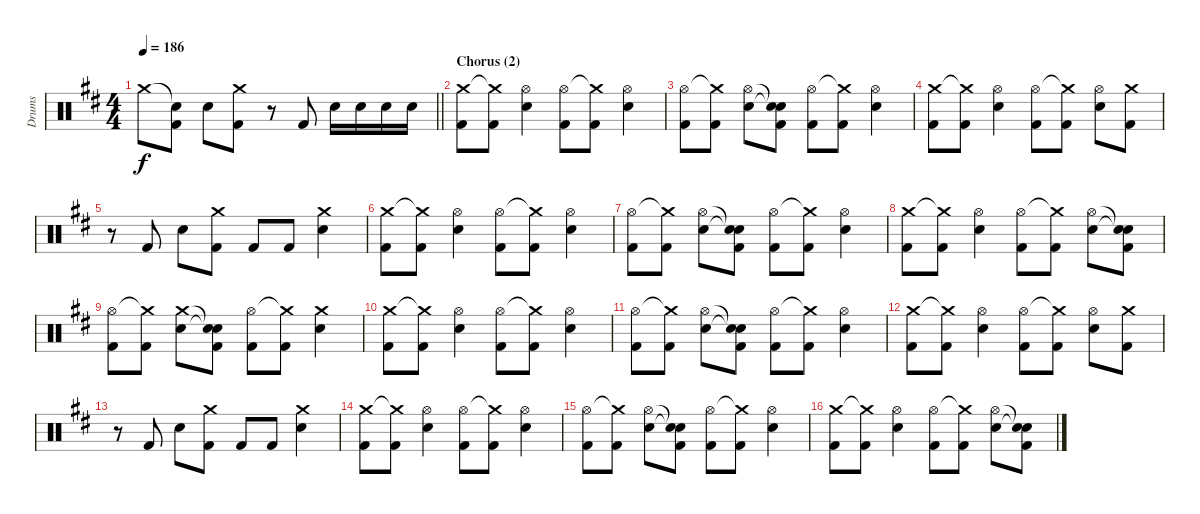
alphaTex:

\track ("Drums" "Drums") {instrument percussion}
\staff {score}
\articulation defaults
\ts (4 4)
\tempo 186
\clef neutral
\barLineRight lightlight
\ks d "Crash medium (hit)".8{dy f}
("Snare (hit)"{t} "Kick (hit) 2").8 "Electric Snare (hit)".8 ("Crash medium (hit)" "Kick (hit) 2").8 r.8 "Kick (hit) 2".8 "Electric Snare (hit)".16 "Electric Snare (hit)".16 "Electric Snare (hit)".16 "Electric Snare (hit)".16 |
\section ("" "Chorus (2)")
("Crash medium (hit)" "Kick (hit) 2").8 ("Crash medium (hit)"{t} "Kick (hit) 2").8 ("Hi-Hat (open)" "Electric Snare (hit)").4 ("Hi-Hat (open)" "Kick (hit) 2").8 ("Crash medium (hit)"{t} "Kick (hit) 2").8 ("Hi-Hat (open)" "Electric Snare (hit)").4 |
("Hi-Hat (open)" "Kick (hit) 2").8 ("Crash medium (hit)"{t} "Kick (hit) 2").8 ("Hi-Hat (open)" "Electric Snare (hit)").8 ("Snare (hit)"{t} "Snare (hit)"{t} "Kick (hit) 2").8 ("Hi-Hat (open)" "Kick (hit) 2").8 ("Crash medium (hit)"{t} "Kick (hit) 2").8 ("Hi-Hat (open)" "Electric Snare (hit)").4 |
("Crash medium (hit)" "Kick (hit) 2").8 ("Crash medium (hit)"{t} "Kick (hit) 2").8 ("Hi-Hat (open)" "Electric Snare (hit)").4 ("Hi-Hat (open)" "Kick (hit) 2").8 ("Crash medium (hit)"{t} "Kick (hit) 2").8 ("Hi-Hat (open)" "Electric Snare (hit)").8 ("Crash medium (hit)" "Kick (hit) 2").8 |
r.8 "Kick (hit) 2".8 "Electric Snare (hit)".8 ("Crash medium (hit)" "Kick (hit) 2").8 "Kick (hit) 2".8 "Kick (hit) 2".8 ("Crash medium (hit)" "Electric Snare (hit)").4 |
("Crash medium (hit)" "Kick (hit) 2").8 ("Crash medium (hit)"{t} "Kick (hit) 2").8 ("Hi-Hat (open)" "Electric Snare (hit)").4 ("Hi-Hat (open)" "Kick (hit) 2").8 ("Crash medium (hit)"{t} "Kick (hit) 2").8 ("Hi-Hat (open)" "Electric Snare (hit)").4 |
("Hi-Hat (open)" "Kick (hit) 2").8 ("Crash medium (hit)"{t} "Kick (hit) 2").8 ("Hi-Hat (open)" "Electric Snare (hit)").8 ("Snare (hit)"{t} "Snare (hit)"{t} "Kick (hit) 2").8 ("Hi-Hat (open)" "Kick (hit) 2").8 ("Crash medium (hit)"{t} "Kick (hit) 2").8 ("Hi-Hat (open)" "Electric Snare (hit)").4 |
("Crash medium (hit)" "Kick (hit) 2").8 ("Crash medium (hit)"{t} "Kick (hit) 2").8 ("Hi-Hat (open)" "Electric Snare (hit)").4 ("Hi-Hat (open)" "Kick (hit) 2").8 ("Crash medium (hit)"{t} "Kick (hit) 2").8 ("Hi-Hat (open)" "Electric Snare (hit)").8 ("Snare (hit)"{t} "Snare (hit)"{t} "Kick (hit) 2").8 |
("Hi-Hat (open)" "Kick (hit) 2").8 ("Crash medium (hit)"{t} "Kick (hit) 2").8 ("Crash medium (hit)" "Electric Snare (hit)").8 ("Snare (hit)"{t} "Snare (hit)"{t} "Kick (hit) 2").8 ("Hi-Hat (open)" "Kick (hit) 2").8 ("Crash medium (hit)"{t} "Kick (hit) 2").8 ("Crash medium (hit)" "Electric Snare (hit)").4 |
("Crash medium (hit)" "Kick (hit) 2").8 ("Crash medium (hit)"{t} "Kick (hit) 2").8 ("Hi-Hat (open)" "Electric Snare (hit)").4 ("Hi-Hat (open)" "Kick (hit) 2").8 ("Crash medium (hit)"{t} "Kick (hit) 2").8 ("Hi-Hat (open)" "Electric Snare (hit)").4 |
("Hi-Hat (open)" "Kick (hit) 2").8 ("Crash medium (hit)"{t} "Kick (hit) 2").8 ("Hi-Hat (open)" "Electric Snare (hit)").8 ("Snare (hit)"{t} "Snare (hit)"{t} "Kick (hit) 2").8 ("Hi-Hat (open)" "Kick (hit) 2").8 ("Crash medium (hit)"{t} "Kick (hit) 2").8 ("Hi-Hat (open)" "Electric Snare (hit)").4 |
("Crash medium (hit)" "Kick (hit) 2").8 ("Crash medium (hit)"{t} "Kick (hit) 2").8 ("Hi-Hat (open)" "Electric Snare (hit)").4 ("Hi-Hat (open)" "Kick (hit) 2").8 ("Crash medium (hit)"{t} "Kick (hit) 2").8 ("Hi-Hat (open)" "Electric Snare (hit)").8 ("Crash medium (hit)" "Kick (hit) 2").8 |
r.8 "Kick (hit) 2".8 "Electric Snare (hit)".8 ("Crash medium (hit)" "Kick (hit) 2").8 "Kick (hit) 2".8 "Kick (hit) 2".8 ("Crash medium (hit)" "Electric Snare (hit)").4 |
("Crash medium (hit)" "Kick (hit) 2").8 ("Crash medium (hit)"{t} "Kick (hit) 2").8 ("Hi-Hat (open)" "Electric Snare (hit)").4 ("Hi-Hat (open)" "Kick (hit) 2").8 ("Crash medium (hit)"{t} "Kick (hit) 2").8 ("Hi-Hat (open)" "Electric Snare (hit)").4 |
("Hi-Hat (open)" "Kick (hit) 2").8 ("Crash medium (hit)"{t} "Kick (hit) 2").8 ("Hi-Hat (open)" "Electric Snare (hit)").8 ("Snare (hit)"{t} "Snare (hit)"{t} "Kick (hit) 2").8 ("Hi-Hat (open)" "Kick (hit) 2").8 ("Crash medium (hit)"{t} "Kick (hit) 2").8 ("Hi-Hat (open)" "Electric Snare (hit)").4 |
("Crash medium (hit)" "Kick (hit) 2").8 ("Crash medium (hit)"{t} "Kick (hit) 2").8 ("Hi-Hat (open)" "Electric Snare (hit)").4 ("Hi-Hat (open)" "Kick (hit) 2").8 ("Crash medium (hit)"{t} "Kick (hit) 2").8 ("Hi-Hat (open)" "Electric Snare (hit)").8 ("Snare (hit)"{t} "Snare (hit)"{t} "Kick (hit) 2").8
